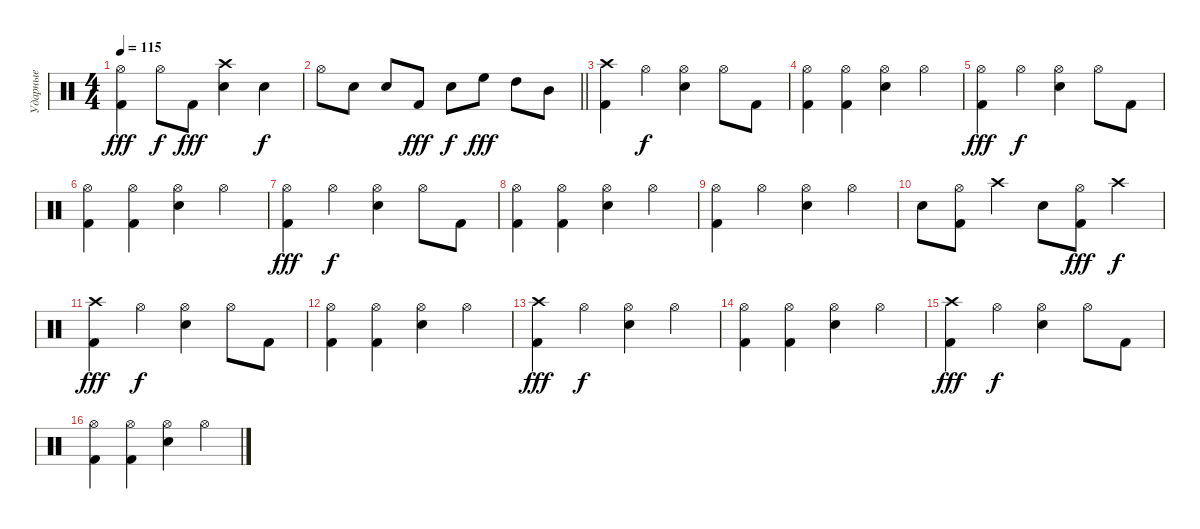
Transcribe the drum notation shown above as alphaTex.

\track ("Ударные" "Ударные") {instrument percussion}
\staff {score}
\articulation defaults
\ts (4 4)
\tempo 115
\clef neutral
\ks c
("Kick (hit) 2" "Hi-Hat (open)").4{dy fff} "Hi-Hat (open)".8{dy f} "Kick (hit) 2".8{dy fff} ("Snare (hit) 2" "Crash high (hit)").4 "Snare (hit) 2".4{dy f} |
\barLineRight lightlight "Hi-Hat (open)".8 "Snare (hit) 2".8 "Snare (hit) 2".8 "Kick (hit) 2".8{dy fff} "Snare (hit) 2".8{dy f} "High Floor Tom (hit)".8{dy fff} "High Tom (hit)".8 "Mid Tom (hit)".8
|
("Kick (hit) 2" "Crash high (hit)").4 "Hi-Hat (open)".4{dy f} ("Snare (hit) 2" "Hi-Hat (open)").4 "Hi-Hat (open)".8 "Kick (hit) 2".8 |
("Kick (hit) 2" "Hi-Hat (open)").4 ("Kick (hit) 2" "Hi-Hat (open)").4 ("Snare (hit) 2" "Hi-Hat (open)").4 "Hi-Hat (open)".4 |
("Kick (hit) 2" "Hi-Hat (open)").4{dy fff} "Hi-Hat (open)".4{dy f} ("Snare (hit) 2" "Hi-Hat (open)").4 "Hi-Hat (open)".8 "Kick (hit) 2".8 |
("Kick (hit) 2" "Hi-Hat (open)").4 ("Kick (hit) 2" "Hi-Hat (open)").4 ("Snare (hit) 2" "Hi-Hat (open)").4 "Hi-Hat (open)".4 |
("Kick (hit) 2" "Hi-Hat (open)").4{dy fff} "Hi-Hat (open)".4{dy f} ("Snare (hit) 2" "Hi-Hat (open)").4 "Hi-Hat (open)".8 "Kick (hit) 2".8 |
("Kick (hit) 2" "Hi-Hat (open)").4 ("Kick (hit) 2" "Hi-Hat (open)").4 ("Snare (hit) 2" "Hi-Hat (open)").4 "Hi-Hat (open)".4 |
("Kick (hit) 2" "Hi-Hat (open)").4 "Hi-Hat (open)".4 ("Snare (hit) 2" "Hi-Hat (open)").4 "Hi-Hat (open)".4 |
"Snare (hit) 2".8 ("Kick (hit) 2" "Hi-Hat (open)").8 "Crash high (hit)".4 "Snare (hit) 2".8 ("Kick (hit) 2" "Hi-Hat (open)").8{dy fff} "Crash high (hit)".4{dy f} |
("Kick (hit) 2" "Crash high (hit)").4{dy fff} "Hi-Hat (open)".4{dy f} ("Snare (hit) 2" "Hi-Hat (open)").4 "Hi-Hat (open)".8 "Kick (hit) 2".8 |
("Kick (hit) 2" "Hi-Hat (open)").4 ("Kick (hit) 2" "Hi-Hat (open)").4 ("Snare (hit) 2" "Hi-Hat (open)").4 "Hi-Hat (open)".4 |
("Kick (hit) 2" "Crash high (hit)").4{dy fff} "Hi-Hat (open)".4{dy f} ("Snare (hit) 2" "Hi-Hat (open)").4 "Hi-Hat (open)".4 |
("Kick (hit) 2" "Hi-Hat (open)").4 ("Kick (hit) 2" "Hi-Hat (open)").4 ("Snare (hit) 2" "Hi-Hat (open)").4 "Hi-Hat (open)".4 |
("Kick (hit) 2" "Crash high (hit)").4{dy fff} "Hi-Hat (open)".4{dy f} ("Snare (hit) 2" "Hi-Hat (open)").4 "Hi-Hat (open)".8 "Kick (hit) 2".8 |
("Kick (hit) 2" "Hi-Hat (open)").4 ("Kick (hit) 2" "Hi-Hat (open)").4 ("Snare (hit) 2" "Hi-Hat (open)").4 "Hi-Hat (open)".4
